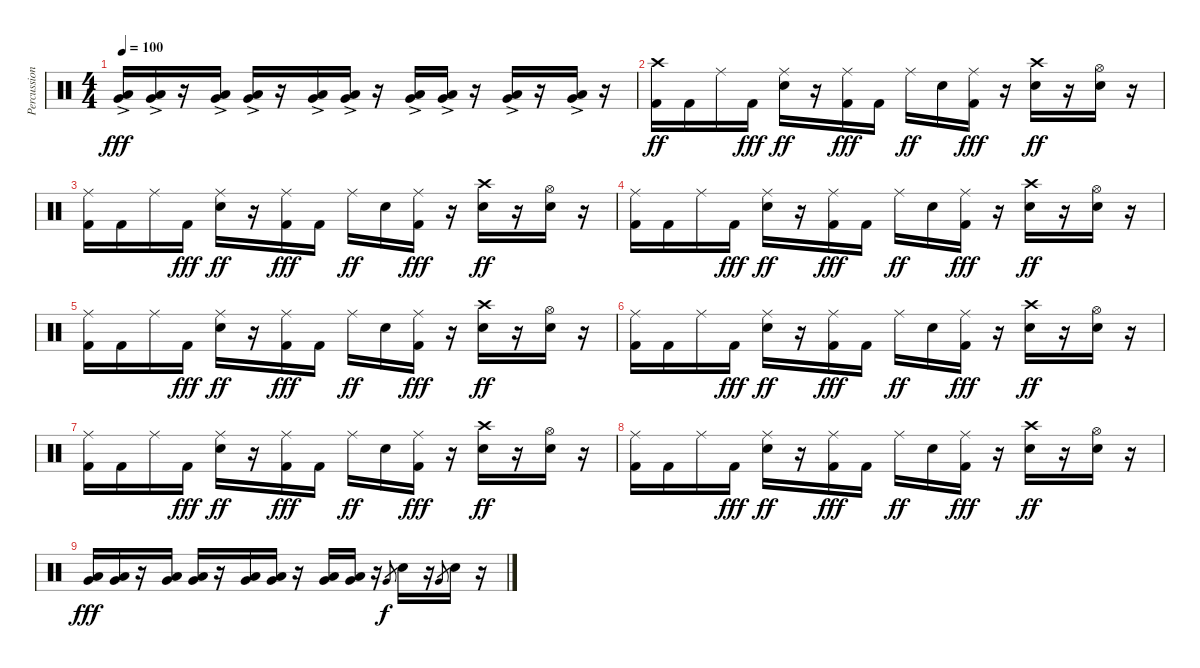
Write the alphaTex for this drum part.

\track ("Percussion" "Percussion") {instrument percussion}
\staff {score}
\articulation defaults
\ts (4 4)
\tempo 100
\clef neutral
\ks c
("Low Tom (hit)" "Very Low Tom (hit)"{ac}).16{dy fff} ("Low Tom (hit)" "Very Low Tom (hit)"{ac}).16 r.16 ("Low Tom (hit)" "Very Low Tom (hit)"{ac}).16 ("Low Tom (hit)" "Very Low Tom (hit)"{ac}).16 r.16 ("Low Tom (hit)" "Very Low Tom (hit)"{ac}).16 ("Low Tom (hit)" "Very Low Tom (hit)"{ac}).16 r.16 ("Low Tom (hit)" "Very Low Tom (hit)"{ac}).16 ("Low Tom (hit)" "Very Low Tom (hit)"{ac}).16 r.16 ("Low Tom (hit)" "Very Low Tom (hit)"{ac}).16 r.16 ("Low Tom (hit)" "Very Low Tom (hit)"{ac}).16 r.16 |
("Crash high (hit)" "Kick (hit) 2").16{dy ff} "Kick (hit) 2".16 "Ride (middle)".16 "Kick (hit) 2".16{dy fff} ("Ride (middle)" "Electric Snare (hit)").16{dy ff} r.16 ("Ride (middle)" "Kick (hit) 2").16{dy fff} "Kick (hit) 2".16 "Ride (middle)".16{dy ff} "Electric Snare (hit)".16 ("Ride (middle)" "Kick (hit) 2").16{dy fff} r.16 ("Crash high (hit)" "Electric Snare (hit)").16{dy ff} r.16 ("Hi-Hat (open)" "Electric Snare (hit)").16 r.16 |
("Ride (middle)" "Kick (hit) 2").16 "Kick (hit) 2".16 "Ride (middle)".16 "Kick (hit) 2".16{dy fff} ("Ride (middle)" "Electric Snare (hit)").16{dy ff} r.16 ("Ride (middle)" "Kick (hit) 2").16{dy fff} "Kick (hit) 2".16 "Ride (middle)".16{dy ff} "Electric Snare (hit)".16 ("Ride (middle)" "Kick (hit) 2").16{dy fff} r.16 ("Crash high (hit)" "Electric Snare (hit)").16{dy ff} r.16 ("Hi-Hat (open)" "Electric Snare (hit)").16 r.16 |
("Ride (middle)" "Kick (hit) 2").16 "Kick (hit) 2".16 "Ride (middle)".16 "Kick (hit) 2".16{dy fff} ("Ride (middle)" "Electric Snare (hit)").16{dy ff} r.16 ("Ride (middle)" "Kick (hit) 2").16{dy fff} "Kick (hit) 2".16 "Ride (middle)".16{dy ff} "Electric Snare (hit)".16 ("Ride (middle)" "Kick (hit) 2").16{dy fff} r.16 ("Crash high (hit)" "Electric Snare (hit)").16{dy ff} r.16 ("Hi-Hat (open)" "Electric Snare (hit)").16 r.16 |
("Ride (middle)" "Kick (hit) 2").16 "Kick (hit) 2".16 "Ride (middle)".16 "Kick (hit) 2".16{dy fff} ("Ride (middle)" "Electric Snare (hit)").16{dy ff} r.16 ("Ride (middle)" "Kick (hit) 2").16{dy fff} "Kick (hit) 2".16 "Ride (middle)".16{dy ff} "Electric Snare (hit)".16 ("Ride (middle)" "Kick (hit) 2").16{dy fff} r.16 ("Crash high (hit)" "Electric Snare (hit)").16{dy ff} r.16 ("Hi-Hat (open)" "Electric Snare (hit)").16 r.16 |
("Ride (middle)" "Kick (hit) 2").16 "Kick (hit) 2".16 "Ride (middle)".16 "Kick (hit) 2".16{dy fff} ("Ride (middle)" "Electric Snare (hit)").16{dy ff} r.16 ("Ride (middle)" "Kick (hit) 2").16{dy fff} "Kick (hit) 2".16 "Ride (middle)".16{dy ff} "Electric Snare (hit)".16 ("Ride (middle)" "Kick (hit) 2").16{dy fff} r.16 ("Crash high (hit)" "Electric Snare (hit)").16{dy ff} r.16 ("Hi-Hat (open)" "Electric Snare (hit)").16 r.16 |
("Ride (middle)" "Kick (hit) 2").16 "Kick (hit) 2".16 "Ride (middle)".16 "Kick (hit) 2".16{dy fff} ("Ride (middle)" "Electric Snare (hit)").16{dy ff} r.16 ("Ride (middle)" "Kick (hit) 2").16{dy fff} "Kick (hit) 2".16 "Ride (middle)".16{dy ff} "Electric Snare (hit)".16 ("Ride (middle)" "Kick (hit) 2").16{dy fff} r.16 ("Crash high (hit)" "Electric Snare (hit)").16{dy ff} r.16 ("Hi-Hat (open)" "Electric Snare (hit)").16 r.16 |
("Ride (middle)" "Kick (hit) 2").16 "Kick (hit) 2".16 "Ride (middle)".16 "Kick (hit) 2".16{dy fff} ("Ride (middle)" "Electric Snare (hit)").16{dy ff} r.16 ("Ride (middle)" "Kick (hit) 2").16{dy fff} "Kick (hit) 2".16 "Ride (middle)".16{dy ff} "Electric Snare (hit)".16 ("Ride (middle)" "Kick (hit) 2").16{dy fff} r.16 ("Crash high (hit)" "Electric Snare (hit)").16{dy ff} r.16 ("Hi-Hat (open)" "Electric Snare (hit)").16 r.16 |
("Low Tom (hit)" "Very Low Tom (hit)").16{dy fff} ("Low Tom (hit)" "Very Low Tom (hit)").16 r.16 ("Low Tom (hit)" "Very Low Tom (hit)").16 ("Low Tom (hit)" "Very Low Tom (hit)").16 r.16 ("Low Tom (hit)" "Very Low Tom (hit)").16 ("Low Tom (hit)" "Very Low Tom (hit)").16 r.16 ("Low Tom (hit)" "Very Low Tom (hit)").16 ("Low Tom (hit)" "Very Low Tom (hit)").16 r.16 "Very Low Tom (hit)".8{gr dy f} "Electric Snare (hit)".16 r.16 "Very Low Tom (hit)".8{gr} "Electric Snare (hit)".16 r.16
